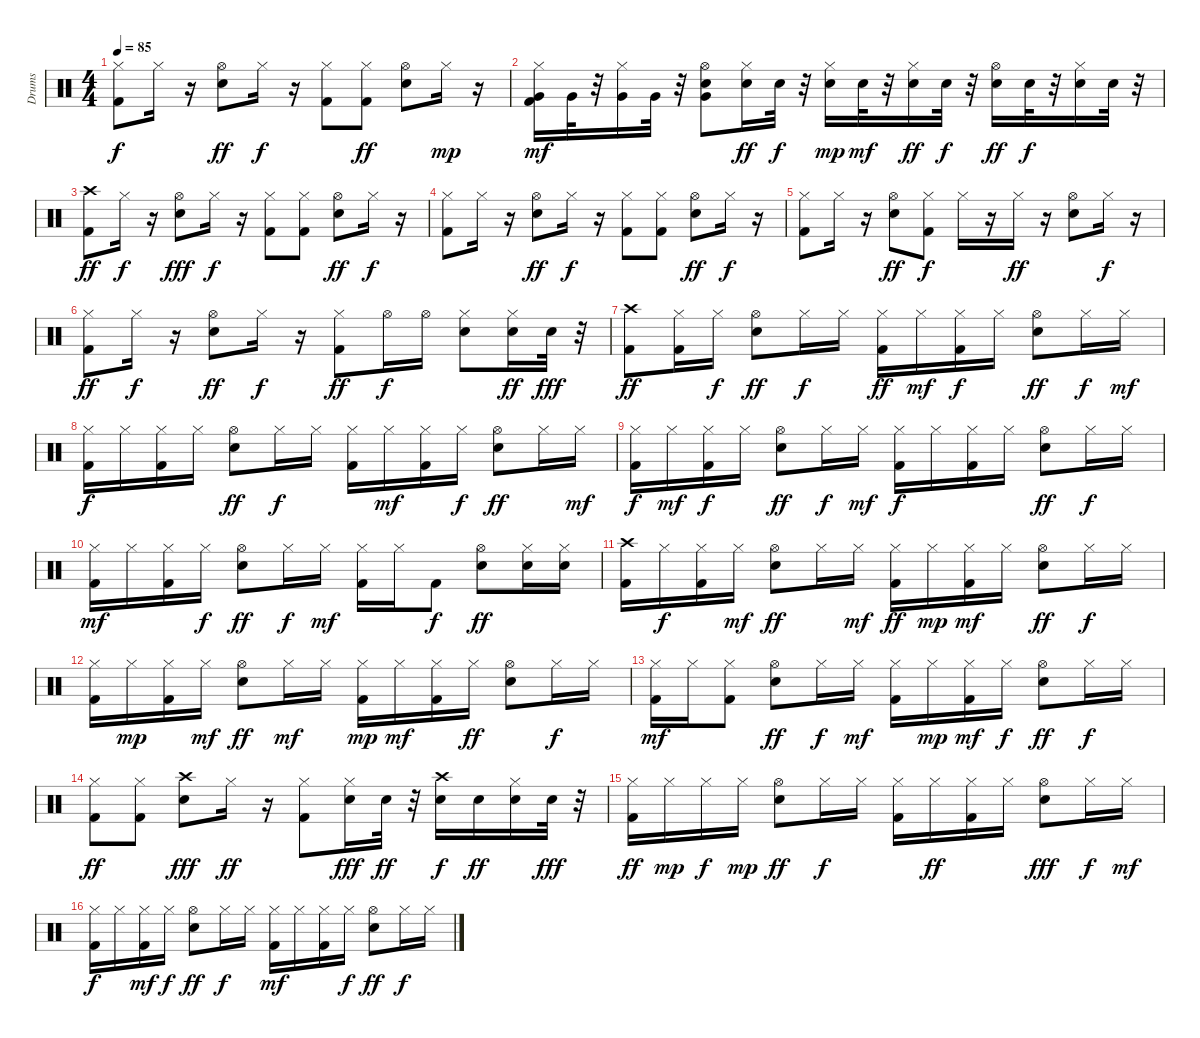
\track ("Drums" "Drums") {instrument percussion}
\staff {score}
\articulation defaults
\ts (4 4)
\tempo 85
\clef neutral
\ks c
("Kick (hit) 2" "Hi-Hat (closed)").8{dy f} "Hi-Hat (closed)".16 r.16 ("Electric Snare (hit)" "Hi-Hat (open)").8{dy ff} "Hi-Hat (closed)".16{dy f} r.16 ("Kick (hit) 2" "Hi-Hat (closed)").8 ("Kick (hit) 2" "Hi-Hat (closed)").8{dy ff} ("Electric Snare (hit)" "Hi-Hat (open)").8 "Hi-Hat (closed)".16{dy mp} r.16 |
("Kick (hit) 2" "Hi-Hat (closed)" "Very Low Tom (hit)").16{dy mf} "Very Low Tom (hit)".32 r.32 ("Hi-Hat (closed)" "Very Low Tom (hit)").16 "Very Low Tom (hit)".32 r.32 ("Electric Snare (hit)" "Hi-Hat (open)" "Very Low Tom (hit)").8 ("Hi-Hat (closed)" "Electric Snare (hit)").16{dy ff} "Electric Snare (hit)".32{dy f} r.32 ("Hi-Hat (closed)" "Electric Snare (hit)").16{dy mp} "Electric Snare (hit)".32{dy mf} r.32 ("Hi-Hat (closed)" "Electric Snare (hit)").16{dy ff} "Electric Snare (hit)".32{dy f} r.32 ("Hi-Hat (open)" "Electric Snare (hit)").16{dy ff} "Electric Snare (hit)".32{dy f} r.32 ("Hi-Hat (closed)" "Electric Snare (hit)").16 "Electric Snare (hit)".32 r.32 |
("Kick (hit) 2" "Crash high (hit)").8{dy ff} "Hi-Hat (closed)".16{dy f} r.16 ("Electric Snare (hit)" "Hi-Hat (open)").8{dy fff} "Hi-Hat (closed)".16{dy f} r.16 ("Kick (hit) 2" "Hi-Hat (closed)").8 ("Kick (hit) 2" "Hi-Hat (closed)").8 ("Electric Snare (hit)" "Hi-Hat (open)").8{dy ff} "Hi-Hat (closed)".16{dy f} r.16 |
("Kick (hit) 2" "Hi-Hat (closed)").8 "Hi-Hat (closed)".16 r.16 ("Electric Snare (hit)" "Hi-Hat (open)").8{dy ff} "Hi-Hat (closed)".16{dy f} r.16 ("Kick (hit) 2" "Hi-Hat (closed)").8 ("Kick (hit) 2" "Hi-Hat (closed)").8 ("Electric Snare (hit)" "Hi-Hat (open)").8{dy ff} "Hi-Hat (closed)".16{dy f} r.16 |
("Kick (hit) 2" "Hi-Hat (closed)").8 "Hi-Hat (closed)".16 r.16 ("Electric Snare (hit)" "Hi-Hat (open)").8{dy ff} ("Kick (hit) 2" "Hi-Hat (closed)").8{dy f} "Hi-Hat (closed)".16 r.16 "Hi-Hat (closed)".16{dy ff} r.16 ("Electric Snare (hit)" "Hi-Hat (open)").8 "Hi-Hat (closed)".16{dy f} r.16 |
("Kick (hit) 2" "Hi-Hat (closed)").8{dy ff} "Hi-Hat (closed)".16{dy f} r.16 ("Electric Snare (hit)" "Hi-Hat (open)").8{dy ff} "Hi-Hat (closed)".16{dy f} r.16 ("Kick (hit) 2" "Hi-Hat (closed)").8{dy ff} "Hi-Hat (open)".16{dy f} "Hi-Hat (open)".16 ("Electric Snare (hit)" "Hi-Hat (closed)").8 ("Hi-Hat (closed)" "Electric Snare (hit)").16{dy ff} "Electric Snare (hit)".32{dy fff} r.32 |
("Kick (hit) 2" "Crash high (hit)").8{dy ff} ("Kick (hit) 2" "Hi-Hat (closed)").16 "Hi-Hat (closed)".16{dy f} ("Electric Snare (hit)" "Hi-Hat (open)").8{dy ff} "Hi-Hat (closed)".16{dy f} "Hi-Hat (closed)".16 ("Kick (hit) 2" "Hi-Hat (closed)").16{dy ff} "Hi-Hat (closed)".16{dy mf} ("Kick (hit) 2" "Hi-Hat (closed)").16{dy f} "Hi-Hat (closed)".16 ("Electric Snare (hit)" "Hi-Hat (open)").8{dy ff} "Hi-Hat (closed)".16{dy f} "Hi-Hat (closed)".16{dy mf} |
("Kick (hit) 2" "Hi-Hat (closed)").16{dy f} "Hi-Hat (closed)".16 ("Kick (hit) 2" "Hi-Hat (closed)").16 "Hi-Hat (closed)".16 ("Electric Snare (hit)" "Hi-Hat (open)").8{dy ff} "Hi-Hat (closed)".16{dy f} "Hi-Hat (closed)".16 ("Kick (hit) 2" "Hi-Hat (closed)").16 "Hi-Hat (closed)".16{dy mf} ("Kick (hit) 2" "Hi-Hat (closed)").16 "Hi-Hat (closed)".16{dy f} ("Electric Snare (hit)" "Hi-Hat (open)").8{dy ff} "Hi-Hat (closed)".16 "Hi-Hat (closed)".16{dy mf} |
("Kick (hit) 2" "Hi-Hat (closed)").16{dy f} "Hi-Hat (closed)".16{dy mf} ("Kick (hit) 2" "Hi-Hat (closed)").16{dy f} "Hi-Hat (closed)".16 ("Electric Snare (hit)" "Hi-Hat (open)").8{dy ff} "Hi-Hat (closed)".16{dy f} "Hi-Hat (closed)".16{dy mf} ("Kick (hit) 2" "Hi-Hat (closed)").16{dy f} "Hi-Hat (closed)".16 ("Kick (hit) 2" "Hi-Hat (closed)").16 "Hi-Hat (closed)".16 ("Electric Snare (hit)" "Hi-Hat (open)").8{dy ff} "Hi-Hat (closed)".16{dy f} "Hi-Hat (closed)".16 |
("Kick (hit) 2" "Hi-Hat (closed)").16{dy mf} "Hi-Hat (closed)".16 ("Kick (hit) 2" "Hi-Hat (closed)").16 "Hi-Hat (closed)".16{dy f} ("Electric Snare (hit)" "Hi-Hat (open)").8{dy ff} "Hi-Hat (closed)".16{dy f} "Hi-Hat (closed)".16{dy mf} ("Kick (hit) 2" "Hi-Hat (closed)").16 "Hi-Hat (closed)".16 "Kick (hit) 2".8{dy f} ("Electric Snare (hit)" "Hi-Hat (open)").8{dy ff} ("Hi-Hat (closed)" "Electric Snare (hit)").16 ("Hi-Hat (closed)" "Electric Snare (hit)").16 |
("Kick (hit) 2" "Crash high (hit)").16 "Hi-Hat (closed)".16{dy f} ("Kick (hit) 2" "Hi-Hat (closed)").16 "Hi-Hat (closed)".16{dy mf} ("Electric Snare (hit)" "Hi-Hat (open)").8{dy ff} "Hi-Hat (closed)".16 "Hi-Hat (closed)".16{dy mf} ("Kick (hit) 2" "Hi-Hat (closed)").16{dy ff} "Hi-Hat (closed)".16{dy mp} ("Kick (hit) 2" "Hi-Hat (closed)").16{dy mf} "Hi-Hat (closed)".16 ("Electric Snare (hit)" "Hi-Hat (open)").8{dy ff} "Hi-Hat (closed)".16{dy f} "Hi-Hat (closed)".16 |
("Kick (hit) 2" "Hi-Hat (closed)").16 "Hi-Hat (closed)".16{dy mp} ("Kick (hit) 2" "Hi-Hat (closed)").16 "Hi-Hat (closed)".16{dy mf} ("Electric Snare (hit)" "Hi-Hat (open)").8{dy ff} "Hi-Hat (closed)".16{dy mf} "Hi-Hat (closed)".16 ("Kick (hit) 2" "Hi-Hat (closed)").16{dy mp} "Hi-Hat (closed)".16{dy mf} ("Kick (hit) 2" "Hi-Hat (closed)").16 "Hi-Hat (closed)".16{dy ff} ("Electric Snare (hit)" "Hi-Hat (open)").8 "Hi-Hat (closed)".16{dy f} "Hi-Hat (closed)".16 |
("Kick (hit) 2" "Hi-Hat (closed)").16{dy mf} "Hi-Hat (closed)".16 ("Kick (hit) 2" "Hi-Hat (closed)").8 ("Electric Snare (hit)" "Hi-Hat (open)").8{dy ff} "Hi-Hat (closed)".16{dy f} "Hi-Hat (closed)".16{dy mf} ("Kick (hit) 2" "Hi-Hat (closed)").16 "Hi-Hat (closed)".16{dy mp} ("Kick (hit) 2" "Hi-Hat (closed)").16{dy mf} "Hi-Hat (closed)".16{dy f} ("Electric Snare (hit)" "Hi-Hat (open)").8{dy ff} "Hi-Hat (closed)".16{dy f} "Hi-Hat (closed)".16 |
("Kick (hit) 2" "Hi-Hat (closed)").8{dy ff} ("Kick (hit) 2" "Hi-Hat (closed)").8 ("Electric Snare (hit)" "Crash high (hit)").8{dy fff} "Hi-Hat (closed)".16{dy ff} r.16 ("Kick (hit) 2" "Hi-Hat (closed)").8 ("Hi-Hat (closed)" "Electric Snare (hit)").16{dy fff} "Electric Snare (hit)".32{dy ff} r.32 ("Electric Snare (hit)" "Crash high (hit)").16{dy f} "Electric Snare (hit)".16{dy ff} ("Hi-Hat (closed)" "Electric Snare (hit)").16 "Electric Snare (hit)".32{dy fff} r.32 |
("Kick (hit) 2" "Hi-Hat (closed)").16{dy ff} "Hi-Hat (closed)".16{dy mp} "Hi-Hat (closed)".16{dy f} "Hi-Hat (closed)".16{dy mp} ("Electric Snare (hit)" "Hi-Hat (open)").8{dy ff} "Hi-Hat (closed)".16{dy f} "Hi-Hat (closed)".16 ("Kick (hit) 2" "Hi-Hat (closed)").16 "Hi-Hat (closed)".16{dy ff} ("Kick (hit) 2" "Hi-Hat (closed)").16 "Hi-Hat (closed)".16 ("Electric Snare (hit)" "Hi-Hat (open)").8{dy fff} "Hi-Hat (closed)".16{dy f} "Hi-Hat (closed)".16{dy mf} |
("Kick (hit) 2" "Hi-Hat (closed)").16{dy f} "Hi-Hat (closed)".16 ("Kick (hit) 2" "Hi-Hat (closed)").16{dy mf} "Hi-Hat (closed)".16{dy f} ("Electric Snare (hit)" "Hi-Hat (open)").8{dy ff} "Hi-Hat (closed)".16{dy f} "Hi-Hat (closed)".16 ("Kick (hit) 2" "Hi-Hat (closed)").16{dy mf} "Hi-Hat (closed)".16 ("Kick (hit) 2" "Hi-Hat (closed)").16 "Hi-Hat (closed)".16{dy f} ("Electric Snare (hit)" "Hi-Hat (open)").8{dy ff} "Hi-Hat (closed)".16{dy f} "Hi-Hat (closed)".16
